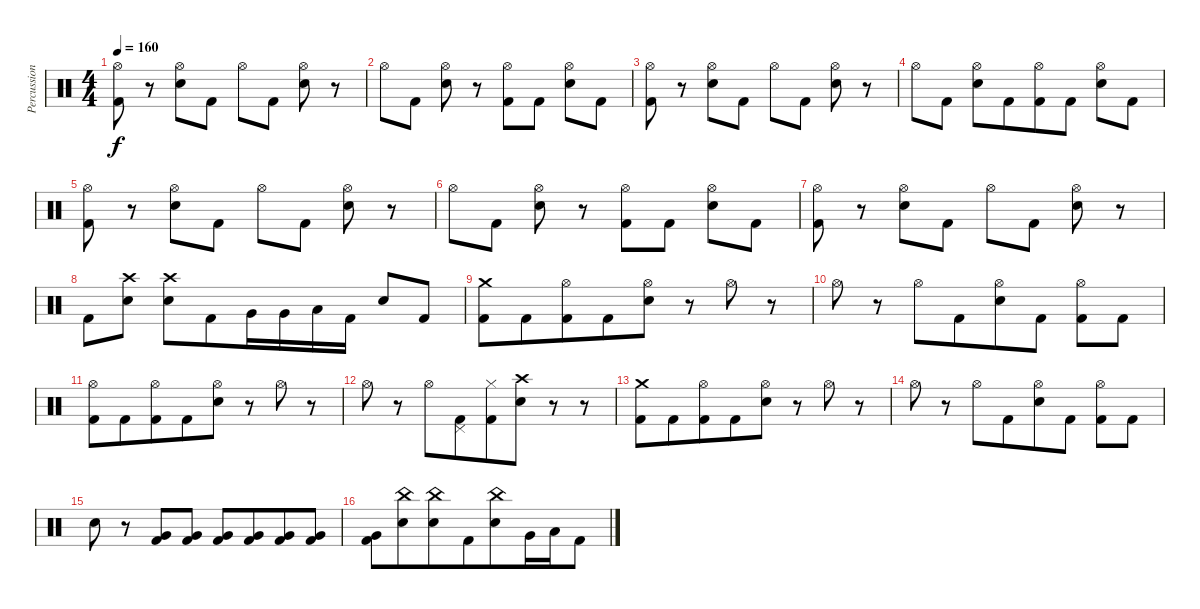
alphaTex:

\track ("Percussion" "Percussion") {instrument percussion}
\staff {score}
\articulation defaults
\ts (4 4)
\tempo 160
\clef neutral
\ks c
("Hi-Hat (open)" "Kick (hit) 2").8{dy f} r.8{beam merge} ("Hi-Hat (open)" "Electric Snare (hit)").8 "Kick (hit) 2".8 "Hi-Hat (open)".8 "Kick (hit) 2".8 ("Hi-Hat (open)" "Electric Snare (hit)").8{beam merge} r.8 |
"Hi-Hat (open)".8 "Kick (hit) 2".8 ("Hi-Hat (open)" "Electric Snare (hit)").8 r.8{beam merge} ("Hi-Hat (open)" "Kick (hit) 2").8{beam merge} "Kick (hit) 2".8 ("Hi-Hat (open)" "Electric Snare (hit)").8{beam merge} "Kick (hit) 2".8 |
("Hi-Hat (open)" "Kick (hit) 2").8 r.8{beam merge} ("Hi-Hat (open)" "Electric Snare (hit)").8 "Kick (hit) 2".8 "Hi-Hat (open)".8 "Kick (hit) 2".8 ("Hi-Hat (open)" "Electric Snare (hit)").8{beam merge} r.8 |
"Hi-Hat (open)".8 "Kick (hit) 2".8 ("Hi-Hat (open)" "Electric Snare (hit)").8 "Kick (hit) 2".8{beam merge} ("Hi-Hat (open)" "Kick (hit) 2").8{beam merge} "Kick (hit) 2".8 ("Hi-Hat (open)" "Electric Snare (hit)").8{beam merge} "Kick (hit) 2".8 |
("Hi-Hat (open)" "Kick (hit) 2").8 r.8{beam merge} ("Hi-Hat (open)" "Electric Snare (hit)").8 "Kick (hit) 2".8 "Hi-Hat (open)".8 "Kick (hit) 2".8 ("Hi-Hat (open)" "Electric Snare (hit)").8{beam merge} r.8 |
"Hi-Hat (open)".8 "Kick (hit) 2".8 ("Hi-Hat (open)" "Electric Snare (hit)").8 r.8{beam merge} ("Hi-Hat (open)" "Kick (hit) 2").8{beam merge} "Kick (hit) 2".8 ("Hi-Hat (open)" "Electric Snare (hit)").8{beam merge} "Kick (hit) 2".8 |
("Hi-Hat (open)" "Kick (hit) 2").8 r.8{beam merge} ("Hi-Hat (open)" "Electric Snare (hit)").8 "Kick (hit) 2".8 "Hi-Hat (open)".8 "Kick (hit) 2".8 ("Hi-Hat (open)" "Electric Snare (hit)").8{beam merge} r.8 |
"Kick (hit) 2".8 ("Crash high (hit)" "Electric Snare (hit)").8 ("Crash high (hit)" "Electric Snare (hit)").8 "Kick (hit) 2".8{beam merge} "Very Low Tom (hit)".16 "Very Low Tom (hit)".16{beam merge} "Low Floor Tom (hit)".16 "Kick (hit) 2".16 "Electric Snare (hit)".8 "Kick (hit) 2".8 |
("Crash medium (hit)" "Kick (hit) 2").8{beam merge} "Kick (hit) 2".8{beam merge} ("Hi-Hat (open)" "Kick (hit) 2").8 "Kick (hit) 2".8{beam merge} ("Hi-Hat (open)" "Electric Snare (hit)").8 r.8 "Hi-Hat (open)".8{beam merge} r.8 |
"Hi-Hat (open)".8 r.8{beam merge} "Hi-Hat (open)".8 "Kick (hit) 2".8{beam merge} ("Hi-Hat (open)" "Electric Snare (hit)").8 "Kick (hit) 2".8 ("Hi-Hat (open)" "Kick (hit) 2").8 "Kick (hit) 2".8 |
("Hi-Hat (open)" "Kick (hit) 2").8{beam merge} "Kick (hit) 2".8{beam merge} ("Hi-Hat (open)" "Kick (hit) 2").8 "Kick (hit) 2".8{beam merge} ("Hi-Hat (open)" "Electric Snare (hit)").8 r.8 "Hi-Hat (open)".8{beam merge} r.8 |
"Hi-Hat (open)".8 r.8{beam merge} "Hi-Hat (open)".8 ("Pedal Hi-Hat (hit)" "Kick (hit) 2").8{beam merge} ("Hi-Hat (closed)" "Kick (hit) 2").8 ("Crash high (hit)" "Electric Snare (hit)").8{beam merge} r.8 r.8 |
("Crash medium (hit)" "Kick (hit) 2").8{beam merge} "Kick (hit) 2".8{beam merge} ("Hi-Hat (open)" "Kick (hit) 2").8 "Kick (hit) 2".8{beam merge} ("Hi-Hat (open)" "Electric Snare (hit)").8 r.8 "Hi-Hat (open)".8{beam merge} r.8 |
"Hi-Hat (open)".8 r.8{beam merge} "Hi-Hat (open)".8 "Kick (hit) 2".8{beam merge} ("Hi-Hat (open)" "Electric Snare (hit)").8 "Kick (hit) 2".8 ("Hi-Hat (open)" "Kick (hit) 2").8 "Kick (hit) 2".8 |
"Electric Snare (hit)".8 r.8{beam merge} ("Very Low Tom (hit)" "Kick (hit) 2").8{beam merge} ("Very Low Tom (hit)" "Kick (hit) 2").8 ("Very Low Tom (hit)" "Kick (hit) 2").8{beam merge} ("Very Low Tom (hit)" "Kick (hit) 2").8{beam merge} ("Very Low Tom (hit)" "Kick (hit) 2").8 ("Very Low Tom (hit)" "Kick (hit) 2").8 |
("Very Low Tom (hit)" "Kick (hit) 2").8 ("China (hit)" "Electric Snare (hit)").8{beam merge} ("China (hit)" "Electric Snare (hit)").8 "Kick (hit) 2".8{beam merge} ("China (hit)" "Electric Snare (hit)").8 "Very Low Tom (hit)".16 "Low Floor Tom (hit)".16{beam merge} "Kick (hit) 2".8
